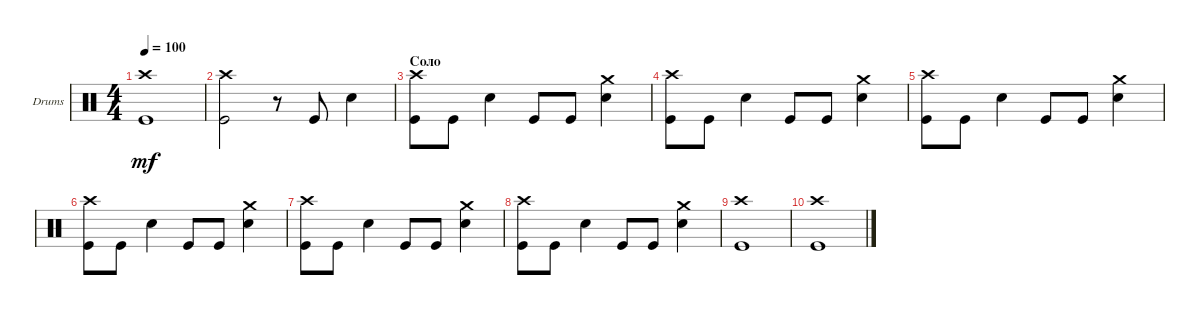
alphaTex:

\defaultSystemsLayout 4
\bracketExtendMode groupsimilarinstruments
\firstSystemTrackNameOrientation horizontal
\otherSystemsTrackNameOrientation horizontal
\track ("Е. Кулаков" "Drums") {instrument percussion}
\staff {score}
\articulation defaults
\ts (4 4)
\tempo 100
\clef neutral
\ks c
("Kick (hit)" "Crash high (hit)").1{dy mf} |
("Kick (hit)" "Crash high (hit)").2 r.8 "Kick (hit)".8 "Snare (hit) 2".4 |
\section ("" "Соло")
("Kick (hit)" "Crash high (hit)").8 "Kick (hit)".8 "Snare (hit) 2".4 "Kick (hit)".8 "Kick (hit)".8 ("Snare (hit) 2" "Crash medium (hit)").4 |
("Kick (hit)" "Crash high (hit)").8 "Kick (hit)".8 "Snare (hit) 2".4 "Kick (hit)".8 "Kick (hit)".8 ("Snare (hit) 2" "Crash medium (hit)").4 |
("Kick (hit)" "Crash high (hit)").8 "Kick (hit)".8 "Snare (hit) 2".4 "Kick (hit)".8 "Kick (hit)".8 ("Snare (hit) 2" "Crash medium (hit)").4 |
("Kick (hit)" "Crash high (hit)").8 "Kick (hit)".8 "Snare (hit) 2".4 "Kick (hit)".8 "Kick (hit)".8 ("Snare (hit) 2" "Crash medium (hit)").4 |
("Kick (hit)" "Crash high (hit)").8 "Kick (hit)".8 "Snare (hit) 2".4 "Kick (hit)".8 "Kick (hit)".8 ("Snare (hit) 2" "Crash medium (hit)").4 |
("Kick (hit)" "Crash high (hit)").8 "Kick (hit)".8 "Snare (hit) 2".4 "Kick (hit)".8 "Kick (hit)".8 ("Snare (hit) 2" "Crash medium (hit)").4 |
("Kick (hit)" "Crash high (hit)").1 |
("Kick (hit)" "Crash high (hit)").1
